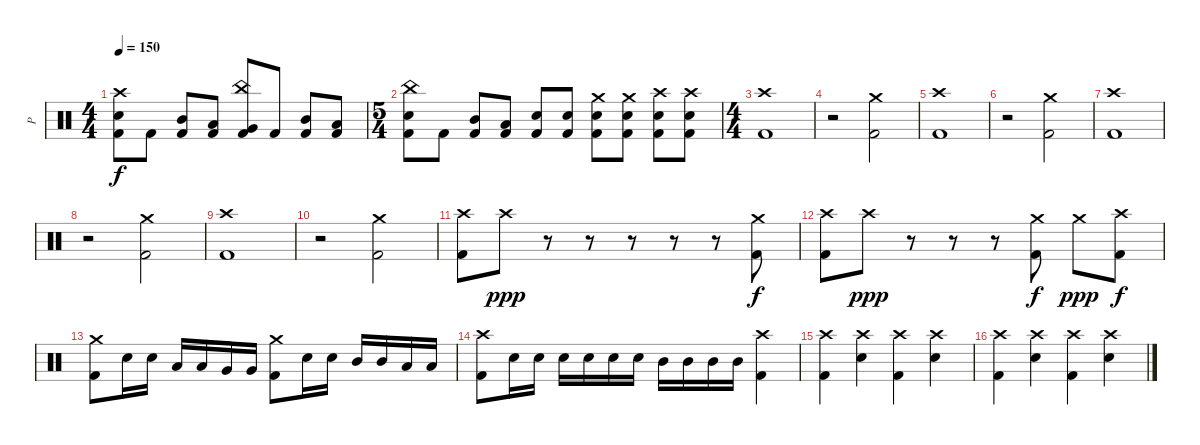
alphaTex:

\track ("P" "P") {instrument percussion}
\staff {score}
\articulation defaults
\ts (4 4)
\tempo 150
\clef neutral
\ks c
("Crash high (hit)" "Electric Snare (hit)" "Kick (hit) 2").8{dy f} "Kick (hit) 2".8 ("Mid Tom (hit)" "Kick (hit) 2").8 ("Low Tom (hit)" "Kick (hit) 2").8 ("China (hit)" "Very Low Tom (hit)" "Kick (hit) 2").8 "Kick (hit) 2".8 ("Mid Tom (hit)" "Kick (hit) 2").8 ("Low Tom (hit)" "Kick (hit) 2").8 |
\ts (5 4)
("China (hit)" "Electric Snare (hit)" "Kick (hit) 2").8 "Kick (hit) 2".8 ("Mid Tom (hit)" "Kick (hit) 2").8 ("Low Tom (hit)" "Kick (hit) 2").8 ("Electric Snare (hit)" "Kick (hit) 2").8 ("Electric Snare (hit)" "Kick (hit) 2").8 ("Crash medium (hit)" "Electric Snare (hit)" "Kick (hit) 2").8 ("Crash medium (hit)" "Electric Snare (hit)" "Kick (hit) 2").8 ("Crash high (hit)" "Electric Snare (hit)" "Kick (hit) 2").8 ("Crash high (hit)" "Electric Snare (hit)" "Kick (hit) 2").8 |
\ts (4 4)
("Crash high (hit)" "Kick (hit) 2").1 |
r.2 ("Crash medium (hit)" "Kick (hit) 2").2 |
("Crash high (hit)" "Kick (hit) 2").1 |
r.2 ("Crash medium (hit)" "Kick (hit) 2").2 |
("Crash high (hit)" "Kick (hit) 2").1 |
r.2 ("Crash medium (hit)" "Kick (hit) 2").2 |
("Crash high (hit)" "Kick (hit) 2").1 |
r.2 ("Crash medium (hit)" "Kick (hit) 2").2 |
("Crash high (hit)" "Kick (hit) 2").8 "Crash high (hit)".8{dy ppp} r.8 r.8 r.8 r.8 r.8 ("Crash medium (hit)" "Kick (hit) 2").8{dy f} |
("Crash high (hit)" "Kick (hit) 2").8 "Crash high (hit)".8{dy ppp} r.8 r.8 r.8 ("Crash medium (hit)" "Kick (hit) 2").8{dy f} "Crash medium (hit)".8{dy ppp} ("Crash high (hit)" "Kick (hit) 2").8{dy f} |
("Crash medium (hit)" "Kick (hit) 2").8 "Electric Snare (hit)".16 "Electric Snare (hit)".16 "Low Tom (hit)".16 "Low Tom (hit)".16 "Very Low Tom (hit)".16 "Very Low Tom (hit)".16 ("Crash medium (hit)" "Kick (hit) 2").8 "Electric Snare (hit)".16 "Electric Snare (hit)".16 "Mid Tom (hit)".16 "Mid Tom (hit)".16 "Low Tom (hit)".16 "Low Tom (hit)".16 |
("Crash high (hit)" "Kick (hit) 2").8 "Electric Snare (hit)".16 "Electric Snare (hit)".16 "Electric Snare (hit)".16 "Electric Snare (hit)".16 "Electric Snare (hit)".16 "Electric Snare (hit)".16 "Mid Tom (hit)".16 "Mid Tom (hit)".16 "Mid Tom (hit)".16 "Mid Tom (hit)".16 ("Crash high (hit)" "Kick (hit) 2").4 |
("Crash high (hit)" "Kick (hit) 2").4 ("Crash high (hit)" "Electric Snare (hit)").4 ("Crash high (hit)" "Kick (hit) 2").4 ("Crash high (hit)" "Electric Snare (hit)").4 |
("Crash high (hit)" "Kick (hit) 2").4 ("Crash high (hit)" "Electric Snare (hit)").4 ("Crash high (hit)" "Kick (hit) 2").4 ("Crash high (hit)" "Electric Snare (hit)").4
